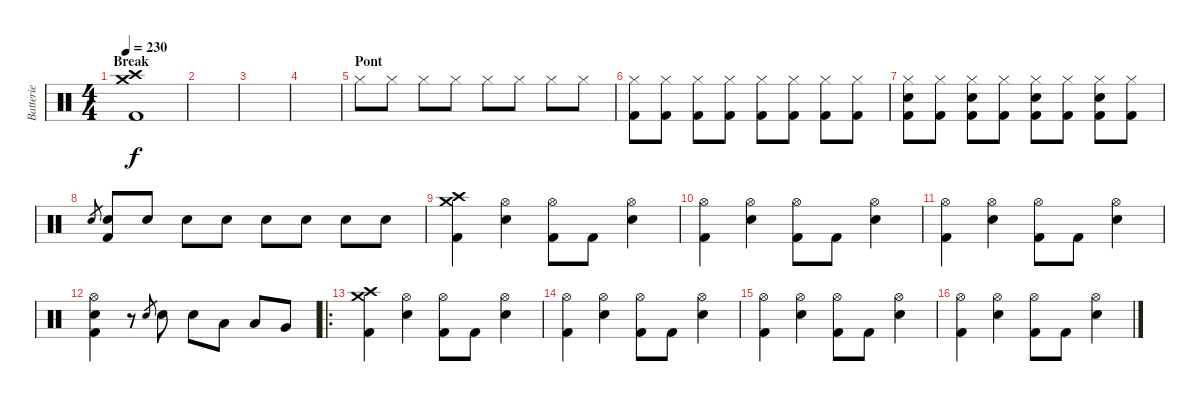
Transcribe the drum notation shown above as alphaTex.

\track ("Batterie" "Batterie") {instrument percussion}
\staff {score}
\articulation defaults
\ts (4 4)
\section ("" "Break")
\tempo 230
\clef neutral
\ks c
("Crash high (hit)" "Crash medium (hit)" "Kick (hit) 2").1{dy f} |
|
|
|
\section ("" "Pont")
"Hi-Hat (closed)".8{volume 16} "Hi-Hat (closed)".8 "Hi-Hat (closed)".8 "Hi-Hat (closed)".8 "Hi-Hat (closed)".8 "Hi-Hat (closed)".8 "Hi-Hat (closed)".8 "Hi-Hat (closed)".8 |
("Hi-Hat (closed)" "Kick (hit) 2").8 ("Hi-Hat (closed)" "Kick (hit) 2").8 ("Hi-Hat (closed)" "Kick (hit) 2").8 ("Hi-Hat (closed)" "Kick (hit) 2").8 ("Hi-Hat (closed)" "Kick (hit) 2").8 ("Hi-Hat (closed)" "Kick (hit) 2").8 ("Hi-Hat (closed)" "Kick (hit) 2").8 ("Hi-Hat (closed)" "Kick (hit) 2").8 |
("Hi-Hat (closed)" "Electric Snare (hit)" "Kick (hit) 2").8 ("Hi-Hat (closed)" "Kick (hit) 2").8 ("Hi-Hat (closed)" "Electric Snare (hit)" "Kick (hit) 2").8 ("Hi-Hat (closed)" "Kick (hit) 2").8 ("Hi-Hat (closed)" "Electric Snare (hit)" "Kick (hit) 2").8 ("Hi-Hat (closed)" "Kick (hit) 2").8 ("Hi-Hat (closed)" "Electric Snare (hit)" "Kick (hit) 2").8 ("Hi-Hat (closed)" "Kick (hit) 2").8 |
"Electric Snare (hit)".8{gr} ("Electric Snare (hit)" "Kick (hit) 2").8 "Electric Snare (hit)".8 "Electric Snare (hit)".8 "Electric Snare (hit)".8 "Electric Snare (hit)".8 "Electric Snare (hit)".8 "Electric Snare (hit)".8 "Electric Snare (hit)".8 |
("Crash high (hit)" "Crash medium (hit)" "Kick (hit) 2").4 ("Hi-Hat (open)" "Electric Snare (hit)").4 ("Hi-Hat (open)" "Kick (hit) 2").8 "Kick (hit) 2".8 ("Hi-Hat (open)" "Electric Snare (hit)").4 |
("Hi-Hat (open)" "Kick (hit) 2").4 ("Hi-Hat (open)" "Electric Snare (hit)").4 ("Hi-Hat (open)" "Kick (hit) 2").8 "Kick (hit) 2".8 ("Hi-Hat (open)" "Electric Snare (hit)").4 |
("Hi-Hat (open)" "Kick (hit) 2").4 ("Hi-Hat (open)" "Electric Snare (hit)").4 ("Hi-Hat (open)" "Kick (hit) 2").8 "Kick (hit) 2".8 ("Hi-Hat (open)" "Electric Snare (hit)").4 |
("Hi-Hat (open)" "Electric Snare (hit)" "Kick (hit) 2").4 r.8 "Electric Snare (hit)".8{gr} "Electric Snare (hit)".8 "Electric Snare (hit)".8 "Low Tom (hit)".8 "Low Tom (hit)".8 "Very Low Tom (hit)".8 |
\ro
("Crash high (hit)" "Crash medium (hit)" "Kick (hit) 2").4 ("Hi-Hat (open)" "Electric Snare (hit)").4 ("Hi-Hat (open)" "Kick (hit) 2").8 "Kick (hit) 2".8 ("Hi-Hat (open)" "Electric Snare (hit)").4 |
("Hi-Hat (open)" "Kick (hit) 2").4 ("Hi-Hat (open)" "Electric Snare (hit)").4 ("Hi-Hat (open)" "Kick (hit) 2").8 "Kick (hit) 2".8 ("Hi-Hat (open)" "Electric Snare (hit)").4 |
("Hi-Hat (open)" "Kick (hit) 2").4 ("Hi-Hat (open)" "Electric Snare (hit)").4 ("Hi-Hat (open)" "Kick (hit) 2").8 "Kick (hit) 2".8 ("Hi-Hat (open)" "Electric Snare (hit)").4 |
("Hi-Hat (open)" "Kick (hit) 2").4 ("Hi-Hat (open)" "Electric Snare (hit)").4 ("Hi-Hat (open)" "Kick (hit) 2").8 "Kick (hit) 2".8 ("Hi-Hat (open)" "Electric Snare (hit)").4
